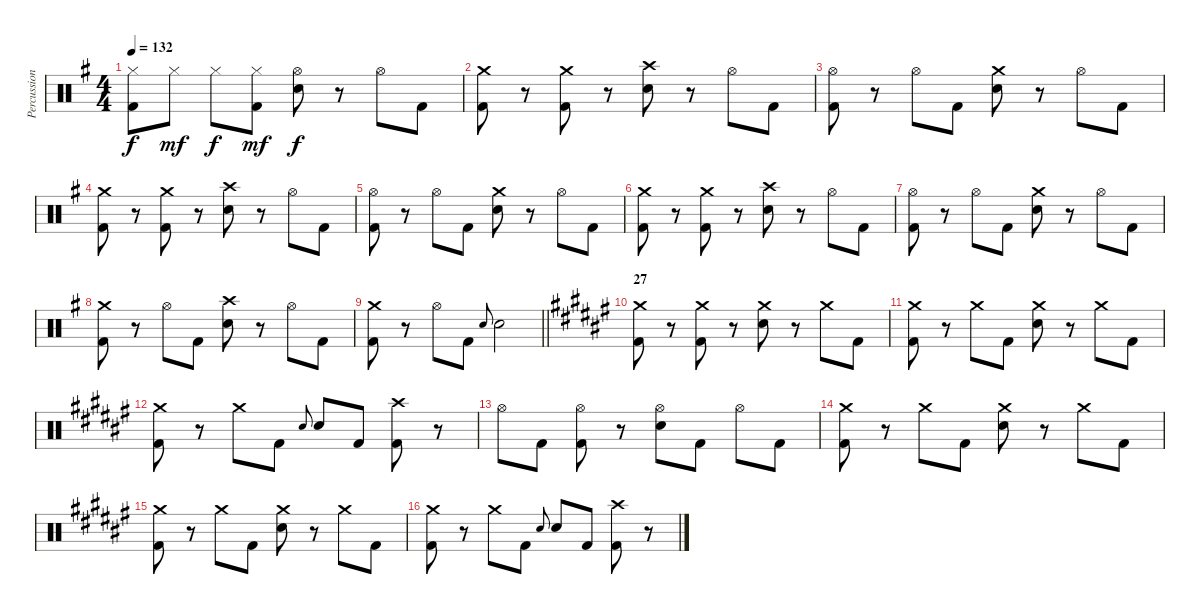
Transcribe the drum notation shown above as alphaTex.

\track ("Percussion" "Percussion") {instrument percussion}
\staff {score}
\articulation defaults
\ts (4 4)
\tempo 132
\clef neutral
\ks eminor
("Hi-Hat (closed)" "Kick (hit) 2").8{dy f} "Hi-Hat (closed)".8{dy mf} "Hi-Hat (closed)".8{dy f} ("Hi-Hat (closed)" "Kick (hit) 2").8{dy mf} ("Hi-Hat (open)" "Snare (hit) 2").8{dy f} r.8 "Hi-Hat (open)".8 "Kick (hit) 2".8 |
("Crash medium (hit)" "Kick (hit) 2").8 r.8 ("Crash medium (hit)" "Kick (hit) 2").8 r.8 ("Crash high (hit)" "Snare (hit) 2").8 r.8 "Hi-Hat (open)".8 "Kick (hit) 2".8 |
("Hi-Hat (open)" "Kick (hit) 2").8 r.8 "Hi-Hat (open)".8 "Kick (hit) 2".8 ("Crash medium (hit)" "Snare (hit) 2").8 r.8 "Hi-Hat (open)".8 "Kick (hit) 2".8 |
("Crash medium (hit)" "Kick (hit) 2").8 r.8 ("Crash medium (hit)" "Kick (hit) 2").8 r.8 ("Crash high (hit)" "Snare (hit) 2").8 r.8 "Hi-Hat (open)".8 "Kick (hit) 2".8 |
("Hi-Hat (open)" "Kick (hit) 2").8 r.8 "Hi-Hat (open)".8 "Kick (hit) 2".8 ("Crash medium (hit)" "Snare (hit) 2").8 r.8 "Hi-Hat (open)".8 "Kick (hit) 2".8 |
("Crash medium (hit)" "Kick (hit) 2").8 r.8 ("Crash medium (hit)" "Kick (hit) 2").8 r.8 ("Crash high (hit)" "Snare (hit) 2").8 r.8 "Hi-Hat (open)".8 "Kick (hit) 2".8 |
("Hi-Hat (open)" "Kick (hit) 2").8 r.8 "Hi-Hat (open)".8 "Kick (hit) 2".8 ("Crash medium (hit)" "Snare (hit) 2").8 r.8 "Hi-Hat (open)".8 "Kick (hit) 2".8 |
("Crash medium (hit)" "Kick (hit) 2").8 r.8 "Hi-Hat (open)".8 "Kick (hit) 2".8 ("Crash high (hit)" "Snare (hit) 2").8 r.8 "Hi-Hat (open)".8 "Kick (hit) 2".8 |
\barLineRight lightlight
("Crash medium (hit)" "Kick (hit) 2").8 r.8 "Hi-Hat (open)".8 "Kick (hit) 2".8 "Snare (hit) 2".8{gr onbeat} "Snare (hit) 2".2 |
\section ("" "27")
\ks d#minor
("Crash medium (hit)" "Kick (hit) 2").8 r.8 ("Crash medium (hit)" "Kick (hit) 2").8 r.8 ("Crash medium (hit)" "Snare (hit) 2").8 r.8 "Crash medium (hit)".8 "Kick (hit) 2".8 |
("Crash medium (hit)" "Kick (hit) 2").8 r.8 "Crash medium (hit)".8 "Kick (hit) 2".8 ("Crash medium (hit)" "Snare (hit) 2").8 r.8 "Crash medium (hit)".8 "Kick (hit) 2".8 |
("Crash medium (hit)" "Kick (hit) 2").8 r.8 "Crash medium (hit)".8 "Kick (hit) 2".8 "Snare (hit) 2".8{gr onbeat} "Snare (hit) 2".8 "Kick (hit) 2".8 ("Crash high (hit)" "Kick (hit) 2").8 r.8 |
"Hi-Hat (open)".8 "Kick (hit) 2".8 ("Hi-Hat (open)" "Kick (hit) 2").8 r.8 ("Hi-Hat (open)" "Snare (hit) 2").8 "Kick (hit) 2".8 "Hi-Hat (open)".8 "Kick (hit) 2".8 |
("Crash medium (hit)" "Kick (hit) 2").8 r.8 "Crash medium (hit)".8 "Kick (hit) 2".8 ("Crash medium (hit)" "Snare (hit) 2").8 r.8 "Crash medium (hit)".8 "Kick (hit) 2".8 |
("Crash medium (hit)" "Kick (hit) 2").8 r.8 "Crash medium (hit)".8 "Kick (hit) 2".8 ("Crash medium (hit)" "Snare (hit) 2").8 r.8 "Crash medium (hit)".8 "Kick (hit) 2".8 |
("Crash medium (hit)" "Kick (hit) 2").8 r.8 "Crash medium (hit)".8 "Kick (hit) 2".8 "Snare (hit) 2".8{gr onbeat} "Snare (hit) 2".8 "Kick (hit) 2".8 ("Crash high (hit)" "Kick (hit) 2").8 r.8
